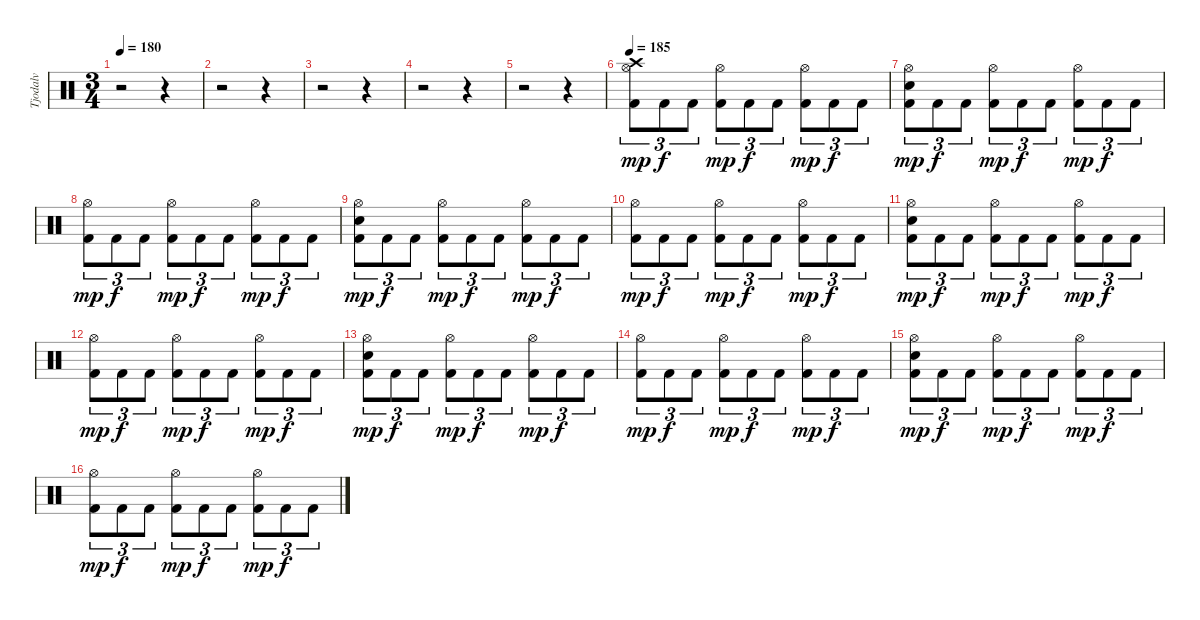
\track ("Tjodalv" "Tjodalv") {instrument percussion}
\staff {score}
\articulation defaults
\ts (3 4)
\tempo 180
\clef neutral
\ks c
r.2{dy fff} r.4 |
r.2 r.4 |
r.2 r.4 |
r.2 r.4 |
r.2 r.4 |
\tempo 185
("Crash high (hit)" "Hi-Hat (open)" "Kick (hit) 2").8{tu (3 2) dy mp} "Kick (hit) 2".8{tu (3 2) dy f} "Kick (hit) 2".8{tu (3 2)} ("Hi-Hat (open)" "Kick (hit) 2").8{tu (3 2) dy mp} "Kick (hit) 2".8{tu (3 2) dy f} "Kick (hit) 2".8{tu (3 2)} ("Hi-Hat (open)" "Kick (hit) 2").8{tu (3 2) dy mp} "Kick (hit) 2".8{tu (3 2) dy f} "Kick (hit) 2".8{tu (3 2)} |
("Hi-Hat (open)" "Electric Snare (hit)" "Kick (hit) 2").8{tu (3 2) dy mp} "Kick (hit) 2".8{tu (3 2) dy f} "Kick (hit) 2".8{tu (3 2)} ("Hi-Hat (open)" "Kick (hit) 2").8{tu (3 2) dy mp} "Kick (hit) 2".8{tu (3 2) dy f} "Kick (hit) 2".8{tu (3 2)} ("Hi-Hat (open)" "Kick (hit) 2").8{tu (3 2) dy mp} "Kick (hit) 2".8{tu (3 2) dy f} "Kick (hit) 2".8{tu (3 2)} |
("Hi-Hat (open)" "Kick (hit) 2").8{tu (3 2) dy mp} "Kick (hit) 2".8{tu (3 2) dy f} "Kick (hit) 2".8{tu (3 2)} ("Hi-Hat (open)" "Kick (hit) 2").8{tu (3 2) dy mp} "Kick (hit) 2".8{tu (3 2) dy f} "Kick (hit) 2".8{tu (3 2)} ("Hi-Hat (open)" "Kick (hit) 2").8{tu (3 2) dy mp} "Kick (hit) 2".8{tu (3 2) dy f} "Kick (hit) 2".8{tu (3 2)} |
("Hi-Hat (open)" "Electric Snare (hit)" "Kick (hit) 2").8{tu (3 2) dy mp} "Kick (hit) 2".8{tu (3 2) dy f} "Kick (hit) 2".8{tu (3 2)} ("Hi-Hat (open)" "Kick (hit) 2").8{tu (3 2) dy mp} "Kick (hit) 2".8{tu (3 2) dy f} "Kick (hit) 2".8{tu (3 2)} ("Hi-Hat (open)" "Kick (hit) 2").8{tu (3 2) dy mp} "Kick (hit) 2".8{tu (3 2) dy f} "Kick (hit) 2".8{tu (3 2)} |
("Hi-Hat (open)" "Kick (hit) 2").8{tu (3 2) dy mp} "Kick (hit) 2".8{tu (3 2) dy f} "Kick (hit) 2".8{tu (3 2)} ("Hi-Hat (open)" "Kick (hit) 2").8{tu (3 2) dy mp} "Kick (hit) 2".8{tu (3 2) dy f} "Kick (hit) 2".8{tu (3 2)} ("Hi-Hat (open)" "Kick (hit) 2").8{tu (3 2) dy mp} "Kick (hit) 2".8{tu (3 2) dy f} "Kick (hit) 2".8{tu (3 2)} |
("Hi-Hat (open)" "Electric Snare (hit)" "Kick (hit) 2").8{tu (3 2) dy mp} "Kick (hit) 2".8{tu (3 2) dy f} "Kick (hit) 2".8{tu (3 2)} ("Hi-Hat (open)" "Kick (hit) 2").8{tu (3 2) dy mp} "Kick (hit) 2".8{tu (3 2) dy f} "Kick (hit) 2".8{tu (3 2)} ("Hi-Hat (open)" "Kick (hit) 2").8{tu (3 2) dy mp} "Kick (hit) 2".8{tu (3 2) dy f} "Kick (hit) 2".8{tu (3 2)} |
("Hi-Hat (open)" "Kick (hit) 2").8{tu (3 2) dy mp} "Kick (hit) 2".8{tu (3 2) dy f} "Kick (hit) 2".8{tu (3 2)} ("Hi-Hat (open)" "Kick (hit) 2").8{tu (3 2) dy mp} "Kick (hit) 2".8{tu (3 2) dy f} "Kick (hit) 2".8{tu (3 2)} ("Hi-Hat (open)" "Kick (hit) 2").8{tu (3 2) dy mp} "Kick (hit) 2".8{tu (3 2) dy f} "Kick (hit) 2".8{tu (3 2)} |
("Hi-Hat (open)" "Electric Snare (hit)" "Kick (hit) 2").8{tu (3 2) dy mp} "Kick (hit) 2".8{tu (3 2) dy f} "Kick (hit) 2".8{tu (3 2)} ("Hi-Hat (open)" "Kick (hit) 2").8{tu (3 2) dy mp} "Kick (hit) 2".8{tu (3 2) dy f} "Kick (hit) 2".8{tu (3 2)} ("Hi-Hat (open)" "Kick (hit) 2").8{tu (3 2) dy mp} "Kick (hit) 2".8{tu (3 2) dy f} "Kick (hit) 2".8{tu (3 2)} |
("Hi-Hat (open)" "Kick (hit) 2").8{tu (3 2) dy mp} "Kick (hit) 2".8{tu (3 2) dy f} "Kick (hit) 2".8{tu (3 2)} ("Hi-Hat (open)" "Kick (hit) 2").8{tu (3 2) dy mp} "Kick (hit) 2".8{tu (3 2) dy f} "Kick (hit) 2".8{tu (3 2)} ("Hi-Hat (open)" "Kick (hit) 2").8{tu (3 2) dy mp} "Kick (hit) 2".8{tu (3 2) dy f} "Kick (hit) 2".8{tu (3 2)} |
("Hi-Hat (open)" "Electric Snare (hit)" "Kick (hit) 2").8{tu (3 2) dy mp} "Kick (hit) 2".8{tu (3 2) dy f} "Kick (hit) 2".8{tu (3 2)} ("Hi-Hat (open)" "Kick (hit) 2").8{tu (3 2) dy mp} "Kick (hit) 2".8{tu (3 2) dy f} "Kick (hit) 2".8{tu (3 2)} ("Hi-Hat (open)" "Kick (hit) 2").8{tu (3 2) dy mp} "Kick (hit) 2".8{tu (3 2) dy f} "Kick (hit) 2".8{tu (3 2)} |
("Hi-Hat (open)" "Kick (hit) 2").8{tu (3 2) dy mp} "Kick (hit) 2".8{tu (3 2) dy f} "Kick (hit) 2".8{tu (3 2)} ("Hi-Hat (open)" "Kick (hit) 2").8{tu (3 2) dy mp} "Kick (hit) 2".8{tu (3 2) dy f} "Kick (hit) 2".8{tu (3 2)} ("Hi-Hat (open)" "Kick (hit) 2").8{tu (3 2) dy mp} "Kick (hit) 2".8{tu (3 2) dy f} "Kick (hit) 2".8{tu (3 2)}
